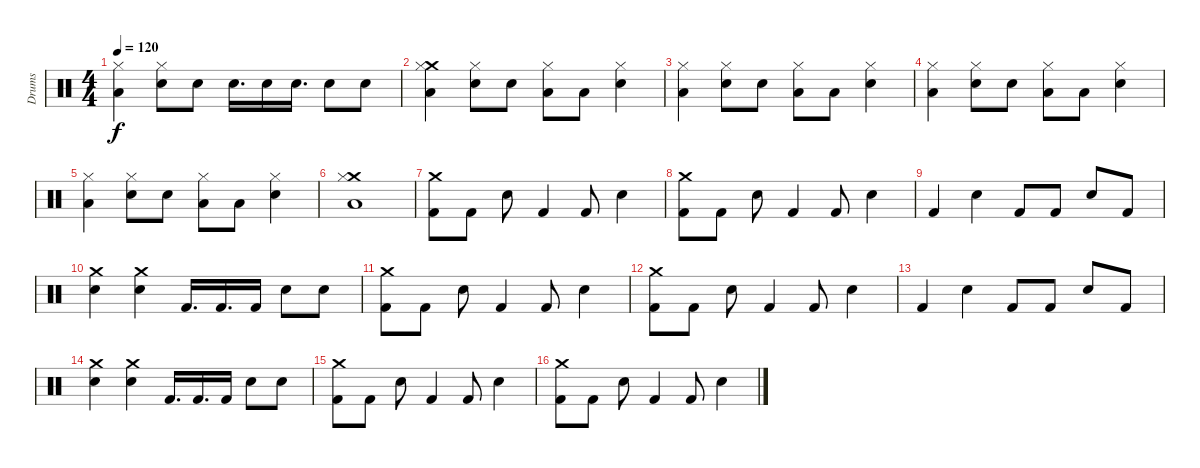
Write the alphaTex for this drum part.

\track ("Drums" "Drums") {instrument percussion}
\staff {score}
\articulation defaults
\ts (4 4)
\tempo 120
\clef neutral
\ks c
("Hi-Hat (closed)" "Low Floor Tom (hit)").4{dy f} ("Hi-Hat (closed)" "Electric Snare (hit)").8 "Electric Snare (hit)".8 "Electric Snare (hit)".16{d} "Electric Snare (hit)".16 "Electric Snare (hit)".16{d} "Electric Snare (hit)".8 "Electric Snare (hit)".8 |
("Crash medium (hit)" "Hi-Hat (closed)" "Low Floor Tom (hit)").4 ("Hi-Hat (closed)" "Electric Snare (hit)").8 "Electric Snare (hit)".8 ("Hi-Hat (closed)" "Low Floor Tom (hit)").8 "Low Floor Tom (hit)".8 ("Hi-Hat (closed)" "Electric Snare (hit)").4 |
("Hi-Hat (closed)" "Low Floor Tom (hit)").4 ("Hi-Hat (closed)" "Electric Snare (hit)").8 "Electric Snare (hit)".8 ("Hi-Hat (closed)" "Low Floor Tom (hit)").8 "Low Floor Tom (hit)".8 ("Hi-Hat (closed)" "Electric Snare (hit)").4 |
("Hi-Hat (closed)" "Low Floor Tom (hit)").4 ("Hi-Hat (closed)" "Electric Snare (hit)").8 "Electric Snare (hit)".8 ("Hi-Hat (closed)" "Low Floor Tom (hit)").8 "Low Floor Tom (hit)".8 ("Hi-Hat (closed)" "Electric Snare (hit)").4 |
("Hi-Hat (closed)" "Low Floor Tom (hit)").4 ("Hi-Hat (closed)" "Electric Snare (hit)").8 "Electric Snare (hit)".8 ("Hi-Hat (closed)" "Low Floor Tom (hit)").8 "Low Floor Tom (hit)".8 ("Hi-Hat (closed)" "Electric Snare (hit)").4 |
("Crash medium (hit)" "Hi-Hat (closed)" "Low Floor Tom (hit)").1 |
("Crash medium (hit)" "Kick (hit) 2").8 "Kick (hit) 2".8 "Electric Snare (hit)".8 "Kick (hit) 2".4 "Kick (hit) 2".8 "Electric Snare (hit)".4 |
("Crash medium (hit)" "Kick (hit) 2").8 "Kick (hit) 2".8 "Electric Snare (hit)".8 "Kick (hit) 2".4 "Kick (hit) 2".8 "Electric Snare (hit)".4 |
"Kick (hit) 2".4 "Electric Snare (hit)".4 "Kick (hit) 2".8 "Kick (hit) 2".8 "Electric Snare (hit)".8 "Kick (hit) 2".8 |
("Crash medium (hit)" "Electric Snare (hit)").4 ("Crash medium (hit)" "Electric Snare (hit)").4 "Kick (hit) 2".16{d} "Kick (hit) 2".16{d} "Kick (hit) 2".16 "Electric Snare (hit)".8 "Electric Snare (hit)".8 |
("Crash medium (hit)" "Kick (hit) 2").8 "Kick (hit) 2".8 "Electric Snare (hit)".8 "Kick (hit) 2".4 "Kick (hit) 2".8 "Electric Snare (hit)".4 |
("Crash medium (hit)" "Kick (hit) 2").8 "Kick (hit) 2".8 "Electric Snare (hit)".8 "Kick (hit) 2".4 "Kick (hit) 2".8 "Electric Snare (hit)".4 |
"Kick (hit) 2".4 "Electric Snare (hit)".4 "Kick (hit) 2".8 "Kick (hit) 2".8 "Electric Snare (hit)".8 "Kick (hit) 2".8 |
("Crash medium (hit)" "Electric Snare (hit)").4 ("Crash medium (hit)" "Electric Snare (hit)").4 "Kick (hit) 2".16{d} "Kick (hit) 2".16{d} "Kick (hit) 2".16 "Electric Snare (hit)".8 "Electric Snare (hit)".8 |
("Crash medium (hit)" "Kick (hit) 2").8 "Kick (hit) 2".8 "Electric Snare (hit)".8 "Kick (hit) 2".4 "Kick (hit) 2".8 "Electric Snare (hit)".4 |
("Crash medium (hit)" "Kick (hit) 2").8 "Kick (hit) 2".8 "Electric Snare (hit)".8 "Kick (hit) 2".4 "Kick (hit) 2".8 "Electric Snare (hit)".4
